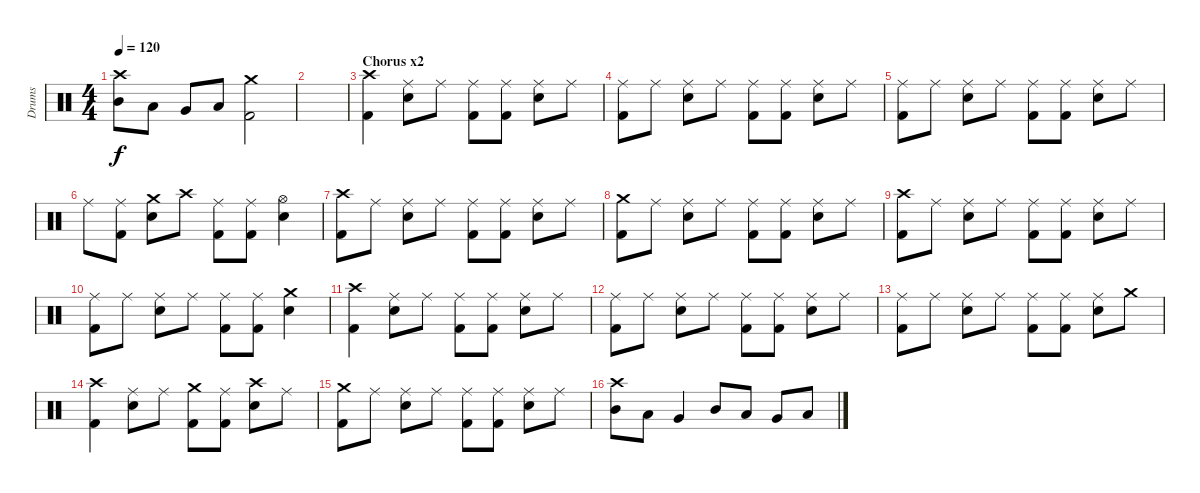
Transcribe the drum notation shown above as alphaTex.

\track ("Drums" "Drums") {instrument percussion}
\staff {score}
\articulation defaults
\ts (4 4)
\tempo 120
\clef neutral
\ks c
("Crash high (hit)" "Mid Tom (hit)").8{dy f} "Low Tom (hit)".8 "Very Low Tom (hit)".8 "Low Floor Tom (hit)".8 ("Crash medium (hit)" "Kick (hit) 2").2 |
|
\section ("" "Chorus x2")
("Crash high (hit)" "Kick (hit) 2").4 ("Ride (middle)" "Electric Snare (hit)").8 "Ride (middle)".8 ("Ride (middle)" "Kick (hit) 2").8 ("Ride (middle)" "Kick (hit) 2").8 ("Ride (middle)" "Electric Snare (hit)").8 "Ride (middle)".8 |
("Ride (middle)" "Kick (hit) 2").8 "Ride (middle)".8 ("Ride (middle)" "Electric Snare (hit)").8 "Ride (middle)".8 ("Ride (middle)" "Kick (hit) 2").8 ("Ride (middle)" "Kick (hit) 2").8 ("Ride (middle)" "Electric Snare (hit)").8 "Ride (middle)".8 |
("Ride (middle)" "Kick (hit) 2").8 "Ride (middle)".8 ("Ride (middle)" "Electric Snare (hit)").8 "Ride (middle)".8 ("Ride (middle)" "Kick (hit) 2").8 ("Ride (middle)" "Kick (hit) 2").8 ("Ride (middle)" "Electric Snare (hit)").8 "Ride (middle)".8 |
"Ride (middle)".8 ("Ride (middle)" "Kick (hit) 2").8 ("Crash medium (hit)" "Electric Snare (hit)").8 "Crash high (hit)".8 ("Ride (middle)" "Kick (hit) 2").8 ("Ride (middle)" "Kick (hit) 2").8 ("Hi-Hat (open)" "Electric Snare (hit)").4 |
("Crash high (hit)" "Kick (hit) 2").8 "Ride (middle)".8 ("Ride (middle)" "Electric Snare (hit)").8 "Ride (middle)".8 ("Ride (middle)" "Kick (hit) 2").8 ("Ride (middle)" "Kick (hit) 2").8 ("Ride (middle)" "Electric Snare (hit)").8 "Ride (middle)".8 |
("Crash medium (hit)" "Kick (hit) 2").8 "Ride (middle)".8 ("Ride (middle)" "Electric Snare (hit)").8 "Ride (middle)".8 ("Ride (middle)" "Kick (hit) 2").8 ("Ride (middle)" "Kick (hit) 2").8 ("Ride (middle)" "Electric Snare (hit)").8 "Ride (middle)".8 |
("Crash high (hit)" "Kick (hit) 2").8 "Ride (middle)".8 ("Ride (middle)" "Electric Snare (hit)").8 "Ride (middle)".8 ("Ride (middle)" "Kick (hit) 2").8 ("Ride (middle)" "Kick (hit) 2").8 ("Ride (middle)" "Electric Snare (hit)").8 "Ride (middle)".8 |
("Ride (middle)" "Kick (hit) 2").8 "Ride (middle)".8 ("Ride (middle)" "Electric Snare (hit)").8 "Ride (middle)".8 ("Ride (middle)" "Kick (hit) 2").8 ("Ride (middle)" "Kick (hit) 2").8 ("Crash medium (hit)" "Electric Snare (hit)").4 |
("Crash high (hit)" "Kick (hit) 2").4 ("Ride (middle)" "Electric Snare (hit)").8 "Ride (middle)".8 ("Ride (middle)" "Kick (hit) 2").8 ("Ride (middle)" "Kick (hit) 2").8 ("Ride (middle)" "Electric Snare (hit)").8 "Ride (middle)".8 |
("Ride (middle)" "Kick (hit) 2").8 "Ride (middle)".8 ("Ride (middle)" "Electric Snare (hit)").8 "Ride (middle)".8 ("Ride (middle)" "Kick (hit) 2").8 ("Ride (middle)" "Kick (hit) 2").8 ("Ride (middle)" "Electric Snare (hit)").8 "Ride (middle)".8 |
("Ride (middle)" "Kick (hit) 2").8 "Ride (middle)".8 ("Ride (middle)" "Electric Snare (hit)").8 "Ride (middle)".8 ("Ride (middle)" "Kick (hit) 2").8 ("Ride (middle)" "Kick (hit) 2").8 ("Ride (middle)" "Electric Snare (hit)").8 "Crash medium (hit)".8 |
("Crash high (hit)" "Kick (hit) 2").4 ("Ride (middle)" "Electric Snare (hit)").8 "Ride (middle)".8 ("Crash medium (hit)" "Kick (hit) 2").8 ("Ride (middle)" "Kick (hit) 2").8 ("Crash high (hit)" "Electric Snare (hit)").8 "Ride (middle)".8 |
("Crash medium (hit)" "Kick (hit) 2").8 "Ride (middle)".8 ("Ride (middle)" "Electric Snare (hit)").8 "Ride (middle)".8 ("Ride (middle)" "Kick (hit) 2").8 ("Ride (middle)" "Kick (hit) 2").8 ("Ride (middle)" "Electric Snare (hit)").8 "Ride (middle)".8 |
("Crash high (hit)" "Mid Tom (hit)").8 "Low Tom (hit)".8 "Very Low Tom (hit)".4 "Mid Tom (hit)".8 "Low Tom (hit)".8 "Very Low Tom (hit)".8 "Low Floor Tom (hit)".8
